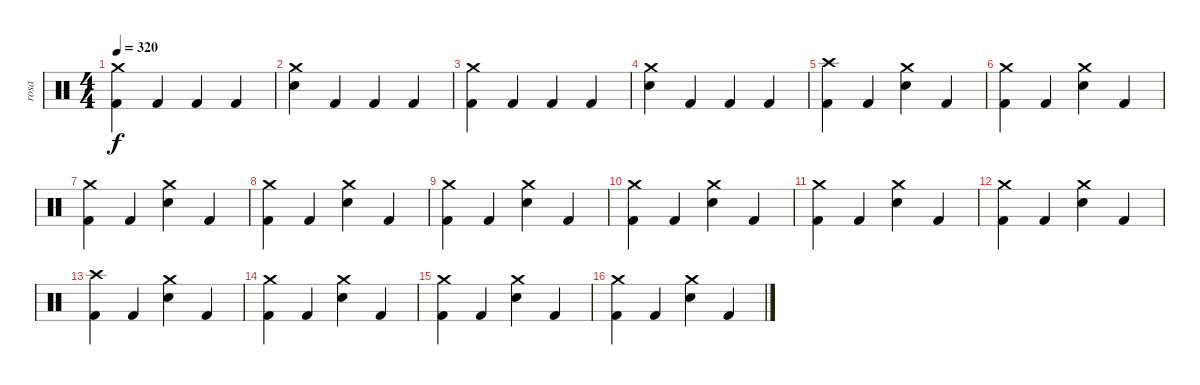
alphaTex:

\track ("rosa" "rosa") {instrument percussion}
\staff {score}
\articulation defaults
\ts (4 4)
\tempo 320
\clef neutral
\ks c
("Crash medium (hit)" "Kick (hit) 2").4{dy f} "Kick (hit) 2".4 "Kick (hit) 2".4 "Kick (hit) 2".4 |
("Crash medium (hit)" "Electric Snare (hit)").4 "Kick (hit) 2".4 "Kick (hit) 2".4 "Kick (hit) 2".4 |
("Crash medium (hit)" "Kick (hit) 2").4 "Kick (hit) 2".4 "Kick (hit) 2".4 "Kick (hit) 2".4 |
("Crash medium (hit)" "Electric Snare (hit)").4 "Kick (hit) 2".4 "Kick (hit) 2".4 "Kick (hit) 2".4 |
("Crash high (hit)" "Kick (hit) 2").4 "Kick (hit) 2".4 ("Crash medium (hit)" "Electric Snare (hit)").4 "Kick (hit) 2".4 |
("Crash medium (hit)" "Kick (hit) 2").4 "Kick (hit) 2".4 ("Crash medium (hit)" "Electric Snare (hit)").4 "Kick (hit) 2".4 |
("Crash medium (hit)" "Kick (hit) 2").4 "Kick (hit) 2".4 ("Crash medium (hit)" "Electric Snare (hit)").4 "Kick (hit) 2".4 |
("Crash medium (hit)" "Kick (hit) 2").4 "Kick (hit) 2".4 ("Crash medium (hit)" "Electric Snare (hit)").4 "Kick (hit) 2".4 |
("Crash medium (hit)" "Kick (hit) 2").4 "Kick (hit) 2".4 ("Crash medium (hit)" "Electric Snare (hit)").4 "Kick (hit) 2".4 |
("Crash medium (hit)" "Kick (hit) 2").4 "Kick (hit) 2".4 ("Crash medium (hit)" "Electric Snare (hit)").4 "Kick (hit) 2".4 |
("Crash medium (hit)" "Kick (hit) 2").4 "Kick (hit) 2".4 ("Crash medium (hit)" "Electric Snare (hit)").4 "Kick (hit) 2".4 |
("Crash medium (hit)" "Kick (hit) 2").4 "Kick (hit) 2".4 ("Crash medium (hit)" "Electric Snare (hit)").4 "Kick (hit) 2".4 |
("Crash high (hit)" "Kick (hit) 2").4 "Kick (hit) 2".4 ("Crash medium (hit)" "Electric Snare (hit)").4 "Kick (hit) 2".4 |
("Crash medium (hit)" "Kick (hit) 2").4 "Kick (hit) 2".4 ("Crash medium (hit)" "Electric Snare (hit)").4 "Kick (hit) 2".4 |
("Crash medium (hit)" "Kick (hit) 2").4 "Kick (hit) 2".4 ("Crash medium (hit)" "Electric Snare (hit)").4 "Kick (hit) 2".4 |
("Crash medium (hit)" "Kick (hit) 2").4 "Kick (hit) 2".4 ("Crash medium (hit)" "Electric Snare (hit)").4 "Kick (hit) 2".4
